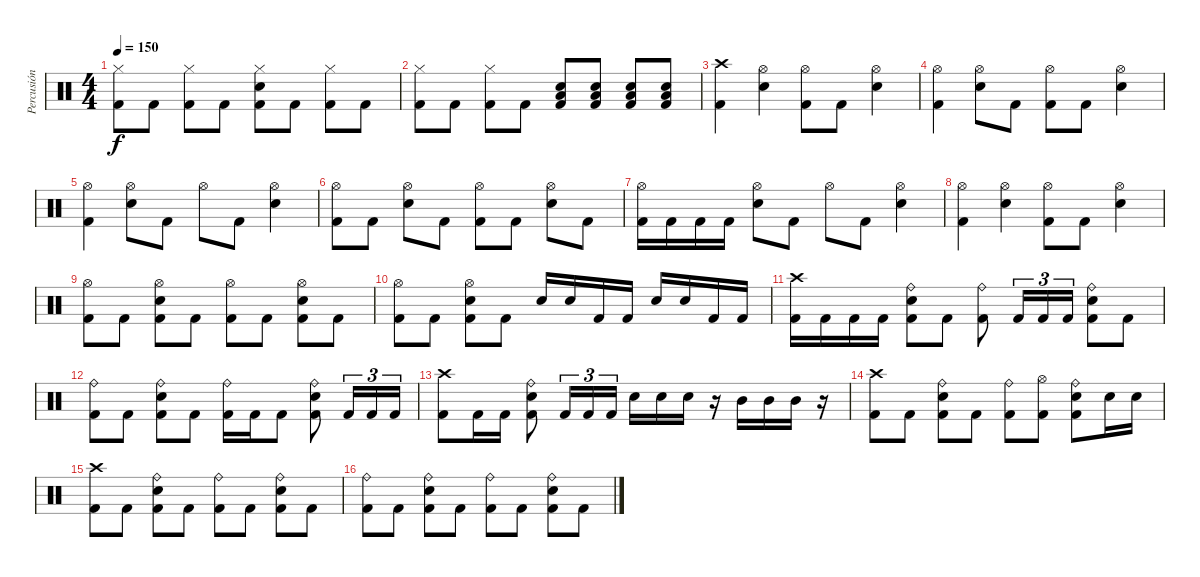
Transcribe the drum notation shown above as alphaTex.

\track ("Percusión" "Percusión") {instrument percussion}
\staff {score}
\articulation defaults
\ts (4 4)
\tempo 150
\clef neutral
\ks c
("Hi-Hat (closed)" "Kick (hit) 2").8{dy f} "Kick (hit) 2".8 ("Hi-Hat (closed)" "Kick (hit) 2").8 "Kick (hit) 2".8 ("Hi-Hat (closed)" "Snare (hit) 2" "Kick (hit) 2").8 "Kick (hit) 2".8 ("Hi-Hat (closed)" "Kick (hit) 2").8 "Kick (hit) 2".8 |
("Hi-Hat (closed)" "Kick (hit) 2").8 "Kick (hit) 2".8 ("Hi-Hat (closed)" "Kick (hit) 2").8 "Kick (hit) 2".8 ("Snare (hit) 2" "Low Floor Tom (hit)" "Kick (hit) 2").8 ("Snare (hit) 2" "Low Floor Tom (hit)" "Kick (hit) 2").8 ("Snare (hit) 2" "Low Floor Tom (hit)" "Kick (hit) 2").8 ("Snare (hit) 2" "Low Floor Tom (hit)" "Kick (hit) 2").8 |
("Crash high (hit)" "Kick (hit) 2").4 ("Hi-Hat (open)" "Snare (hit) 2").4 ("Hi-Hat (open)" "Kick (hit) 2").8 "Kick (hit) 2".8 ("Hi-Hat (open)" "Snare (hit) 2").4 |
("Hi-Hat (open)" "Kick (hit) 2").4 ("Hi-Hat (open)" "Snare (hit) 2").8 "Kick (hit) 2".8 ("Hi-Hat (open)" "Kick (hit) 2").8 "Kick (hit) 2".8 ("Hi-Hat (open)" "Snare (hit) 2").4 |
("Hi-Hat (open)" "Kick (hit) 2").4 ("Hi-Hat (open)" "Snare (hit) 2").8 "Kick (hit) 2".8 "Hi-Hat (open)".8 "Kick (hit) 2".8 ("Hi-Hat (open)" "Snare (hit) 2").4 |
("Hi-Hat (open)" "Kick (hit) 2").8 "Kick (hit) 2".8 ("Hi-Hat (open)" "Snare (hit) 2").8 "Kick (hit) 2".8 ("Hi-Hat (open)" "Kick (hit) 2").8 "Kick (hit) 2".8 ("Hi-Hat (open)" "Snare (hit) 2").8 "Kick (hit) 2".8 |
("Hi-Hat (open)" "Kick (hit) 2").16 "Kick (hit) 2".16 "Kick (hit) 2".16 "Kick (hit) 2".16 ("Hi-Hat (open)" "Snare (hit) 2").8 "Kick (hit) 2".8 "Hi-Hat (open)".8 "Kick (hit) 2".8 ("Hi-Hat (open)" "Snare (hit) 2").4 |
("Hi-Hat (open)" "Kick (hit) 2").4 ("Hi-Hat (open)" "Snare (hit) 2").4 ("Hi-Hat (open)" "Kick (hit) 2").8 "Kick (hit) 2".8 ("Hi-Hat (open)" "Snare (hit) 2").4 |
("Hi-Hat (open)" "Kick (hit) 2").8 "Kick (hit) 2".8 ("Hi-Hat (open)" "Snare (hit) 2" "Kick (hit) 2").8 "Kick (hit) 2".8 ("Hi-Hat (open)" "Kick (hit) 2").8 "Kick (hit) 2".8 ("Hi-Hat (open)" "Snare (hit) 2" "Kick (hit) 2").8 "Kick (hit) 2".8 |
("Hi-Hat (open)" "Kick (hit) 2").8 "Kick (hit) 2".8 ("Hi-Hat (open)" "Snare (hit) 2" "Kick (hit) 2").8 "Kick (hit) 2".8 "Snare (hit) 2".16 "Snare (hit) 2".16 "Kick (hit) 2".16 "Kick (hit) 2".16 "Snare (hit) 2".16 "Snare (hit) 2".16 "Kick (hit) 2".16 "Kick (hit) 2".16 |
("Crash high (hit)" "Kick (hit) 2").16 "Kick (hit) 2".16 "Kick (hit) 2".16 "Kick (hit) 2".16 ("Ride (bell)" "Snare (hit) 2" "Kick (hit) 2").8 "Kick (hit) 2".8 ("Ride (bell)" "Kick (hit) 2").8 "Kick (hit) 2".16{tu (3 2)} "Kick (hit) 2".16{tu (3 2)} "Kick (hit) 2".16{tu (3 2)} ("Ride (bell)" "Snare (hit) 2" "Kick (hit) 2").8 "Kick (hit) 2".8 |
("Ride (bell)" "Kick (hit) 2").8 "Kick (hit) 2".8 ("Ride (bell)" "Snare (hit) 2" "Kick (hit) 2").8 "Kick (hit) 2".8 ("Ride (bell)" "Kick (hit) 2").16 "Kick (hit) 2".16 "Kick (hit) 2".8 ("Ride (bell)" "Snare (hit) 2" "Kick (hit) 2").8 "Kick (hit) 2".16{tu (3 2)} "Kick (hit) 2".16{tu (3 2)} "Kick (hit) 2".16{tu (3 2)} |
("Crash high (hit)" "Kick (hit) 2").8 "Kick (hit) 2".16 "Kick (hit) 2".16 ("Ride (bell)" "Snare (hit) 2" "Kick (hit) 2").8 "Kick (hit) 2".16{tu (3 2)} "Kick (hit) 2".16{tu (3 2)} "Kick (hit) 2".16{tu (3 2)} "Snare (hit) 2".16 "Snare (hit) 2".16 "Snare (hit) 2".16 r.16 "Mid Tom (hit)".16 "Mid Tom (hit)".16 "Mid Tom (hit)".16 r.16 |
("Crash high (hit)" "Kick (hit) 2").8 "Kick (hit) 2".8 ("Ride (bell)" "Snare (hit) 2" "Kick (hit) 2").8 "Kick (hit) 2".8 ("Ride (bell)" "Kick (hit) 2").8 ("Hi-Hat (open)" "Kick (hit) 2").8 ("Ride (bell)" "Snare (hit) 2" "Kick (hit) 2").8 "Snare (hit) 2".16 "Snare (hit) 2".16 |
("Crash high (hit)" "Kick (hit) 2").8 "Kick (hit) 2".8 ("Ride (bell)" "Snare (hit) 2" "Kick (hit) 2").8 "Kick (hit) 2".8 ("Ride (bell)" "Kick (hit) 2").8 "Kick (hit) 2".8 ("Ride (bell)" "Snare (hit) 2" "Kick (hit) 2").8 "Kick (hit) 2".8 |
("Ride (bell)" "Kick (hit) 2").8 "Kick (hit) 2".8 ("Ride (bell)" "Snare (hit) 2" "Kick (hit) 2").8 "Kick (hit) 2".8 ("Ride (bell)" "Kick (hit) 2").8 "Kick (hit) 2".8 ("Ride (bell)" "Snare (hit) 2" "Kick (hit) 2").8 "Kick (hit) 2".8
